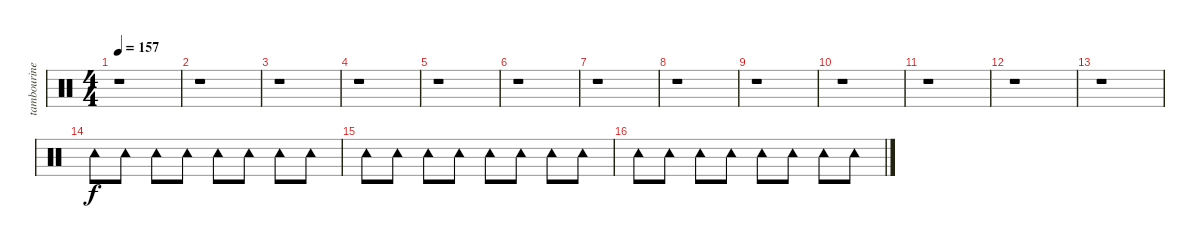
\track ("tambourine" "tambourine") {instrument percussion}
\staff {score}
\articulation defaults
\ts (4 4)
\tempo 157
\clef neutral
\ks c
r.1{dy f} |
r.1 |
r.1 |
r.1 |
r.1 |
r.1 |
r.1 |
r.1 |
r.1 |
r.1 |
r.1 |
r.1 |
r.1 |
"Tambourine (hit)".8 "Tambourine (hit)".8 "Tambourine (hit)".8 "Tambourine (hit)".8 "Tambourine (hit)".8 "Tambourine (hit)".8 "Tambourine (hit)".8 "Tambourine (hit)".8 |
"Tambourine (hit)".8 "Tambourine (hit)".8 "Tambourine (hit)".8 "Tambourine (hit)".8 "Tambourine (hit)".8 "Tambourine (hit)".8 "Tambourine (hit)".8 "Tambourine (hit)".8 |
"Tambourine (hit)".8 "Tambourine (hit)".8 "Tambourine (hit)".8 "Tambourine (hit)".8 "Tambourine (hit)".8 "Tambourine (hit)".8 "Tambourine (hit)".8 "Tambourine (hit)".8
